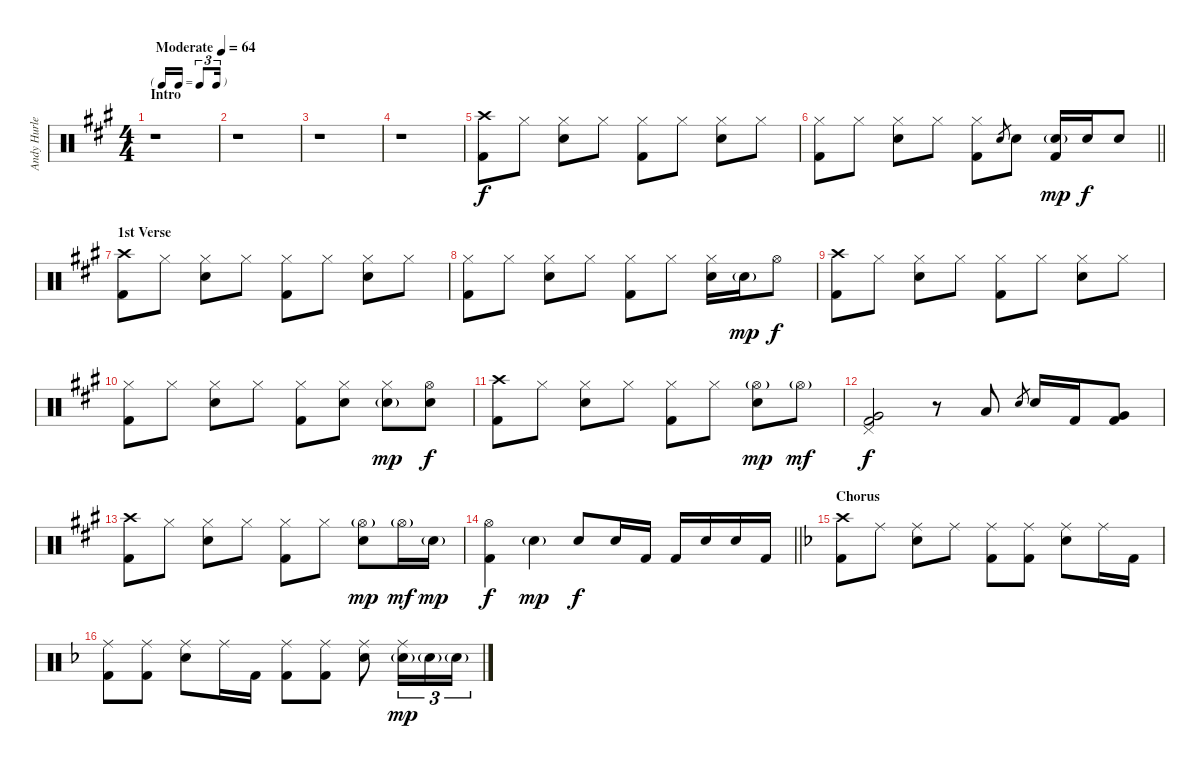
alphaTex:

\track ("Andy Hurley" "Andy Hurle") {instrument percussion}
\staff {score}
\articulation defaults
\ts (4 4)
\tf triplet16th
\section ("" "Intro")
\tempo (64 "Moderate")
\clef neutral
\ks a
r.1{dy f} |
r.1 |
r.1 |
r.1 |
("Crash high (hit)" "Kick (hit) 2").8 "Hi-Hat (closed)".8 ("Hi-Hat (closed)" "Snare (hit) 2").8 "Hi-Hat (closed)".8 ("Hi-Hat (closed)" "Kick (hit) 2").8 "Hi-Hat (closed)".8 ("Hi-Hat (closed)" "Snare (hit) 2").8 "Hi-Hat (closed)".8 |
\barLineRight lightlight
("Hi-Hat (closed)" "Kick (hit) 2").8 "Hi-Hat (closed)".8 ("Hi-Hat (closed)" "Snare (hit) 2").8 "Hi-Hat (closed)".8 ("Hi-Hat (closed)" "Kick (hit) 2").8 "Snare (hit) 2".8{gr} "Snare (hit) 2".8 ("Snare (hit) 2"{g} "Kick (hit) 2").16{dy mp} "Snare (hit) 2".16{dy f} "Snare (hit) 2".8 |
\section ("" "1st Verse")
("Crash high (hit)" "Kick (hit) 2").8 "Hi-Hat (closed)".8 ("Hi-Hat (closed)" "Snare (hit) 2").8 "Hi-Hat (closed)".8 ("Hi-Hat (closed)" "Kick (hit) 2").8 "Hi-Hat (closed)".8 ("Hi-Hat (closed)" "Snare (hit) 2").8 "Hi-Hat (closed)".8 |
("Hi-Hat (closed)" "Kick (hit) 2").8 "Hi-Hat (closed)".8 ("Hi-Hat (closed)" "Snare (hit) 2").8 "Hi-Hat (closed)".8 ("Hi-Hat (closed)" "Kick (hit) 2").8 "Hi-Hat (closed)".8 ("Hi-Hat (closed)" "Snare (hit) 2").16 "Snare (hit) 2"{g}.16{dy mp} "Hi-Hat (open)".8{dy f} |
("Crash high (hit)" "Kick (hit) 2").8 "Hi-Hat (closed)".8 ("Hi-Hat (closed)" "Snare (hit) 2").8 "Hi-Hat (closed)".8 ("Hi-Hat (closed)" "Kick (hit) 2").8 "Hi-Hat (closed)".8 ("Hi-Hat (closed)" "Snare (hit) 2").8 "Hi-Hat (closed)".8 |
("Hi-Hat (closed)" "Kick (hit) 2").8 "Hi-Hat (closed)".8 ("Hi-Hat (closed)" "Snare (hit) 2").8 "Hi-Hat (closed)".8 ("Hi-Hat (closed)" "Kick (hit) 2").8 ("Hi-Hat (closed)" "Snare (hit) 2").8 ("Hi-Hat (closed)" "Snare (hit) 2"{g}).8{dy mp} ("Hi-Hat (open)" "Snare (hit) 2").8{dy f} |
("Crash high (hit)" "Kick (hit) 2").8 "Hi-Hat (closed)".8 ("Hi-Hat (closed)" "Snare (hit) 2").8 "Hi-Hat (closed)".8 ("Hi-Hat (closed)" "Kick (hit) 2").8 "Hi-Hat (closed)".8 ("Hi-Hat (open)"{g} "Snare (hit) 2").8{dy mp} "Hi-Hat (open)"{g}.8{dy mf} |
("Pedal Hi-Hat (hit)" "Very Low Tom (hit)" "Kick (hit) 2").2{dy f} r.8 "Low Tom (hit)".8 "Snare (hit) 2".8{gr} "Snare (hit) 2".16 "Kick (hit) 2".16 ("Very Low Tom (hit)" "Kick (hit) 2").8 |
("Crash high (hit)" "Kick (hit) 2").8 "Hi-Hat (closed)".8 ("Hi-Hat (closed)" "Snare (hit) 2").8 "Hi-Hat (closed)".8 ("Hi-Hat (closed)" "Kick (hit) 2").8 "Hi-Hat (closed)".8 ("Hi-Hat (open)"{g} "Snare (hit) 2").8{dy mp} "Hi-Hat (open)"{g}.16{dy mf} "Snare (hit) 2"{g}.16{dy mp} |
\barLineRight lightlight
("Hi-Hat (open)" "Kick (hit) 2").4{dy f} "Snare (hit) 2"{g}.4{dy mp} "Snare (hit) 2".8{dy f} "Snare (hit) 2".16 "Kick (hit) 2".16 "Kick (hit) 2".16 "Snare (hit) 2".16 "Snare (hit) 2".16 "Kick (hit) 2".16 |
\section ("" "Chorus")
\ks f
("Crash high (hit)" "Kick (hit) 2").8 "Ride (middle)".8 ("Ride (middle)" "Snare (hit) 2").8 "Ride (middle)".8 ("Ride (middle)" "Kick (hit) 2").8 ("Ride (middle)" "Kick (hit) 2").8 ("Ride (middle)" "Snare (hit) 2").8 "Ride (middle)".16 "Kick (hit) 2".16 |
("Ride (middle)" "Kick (hit) 2").8 ("Ride (middle)" "Kick (hit) 2").8 ("Ride (middle)" "Snare (hit) 2").8 "Ride (middle)".16 "Kick (hit) 2".16 ("Ride (middle)" "Kick (hit) 2").8 ("Ride (middle)" "Kick (hit) 2").8 ("Ride (middle)" "Snare (hit) 2").8 ("Ride (middle)" "Snare (hit) 2"{g}).16{tu (3 2) dy mp} "Snare (hit) 2"{g}.16{tu (3 2)} "Snare (hit) 2"{g}.16{tu (3 2)}
